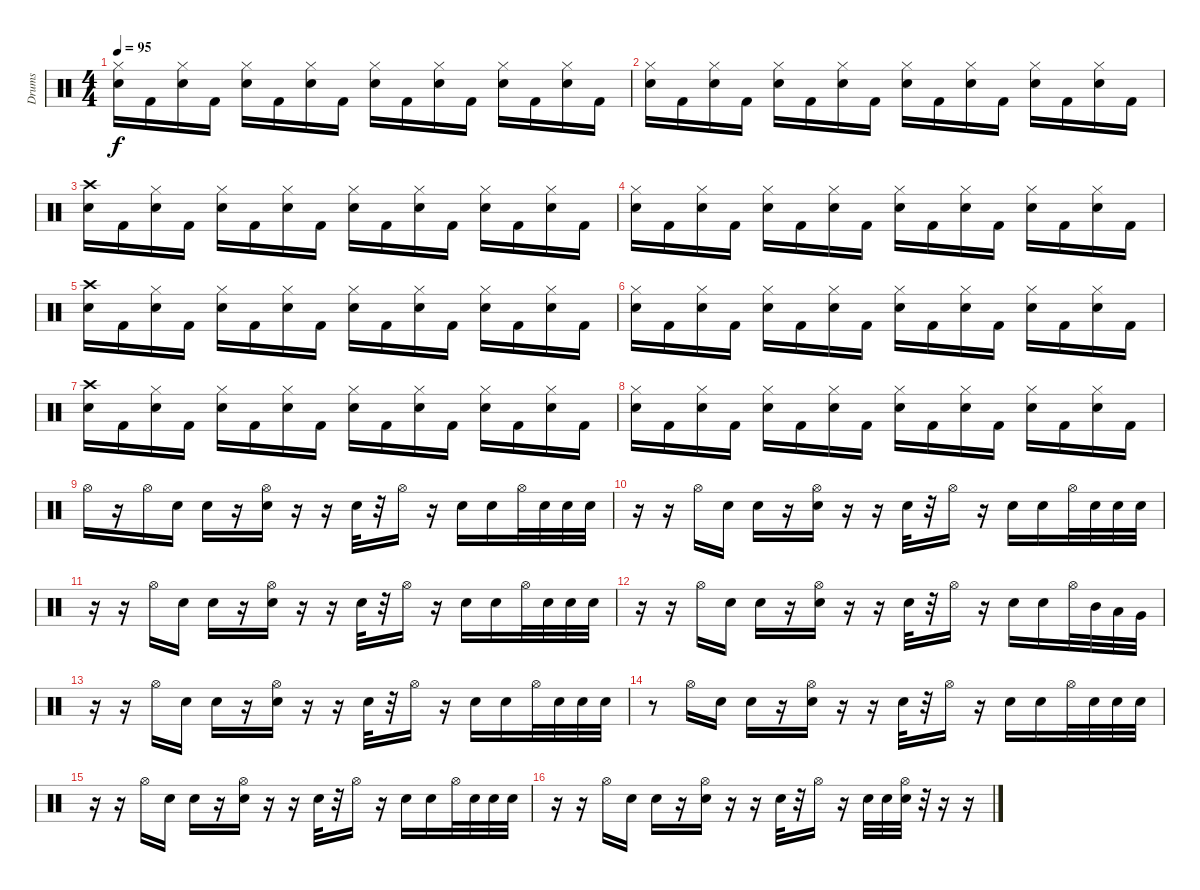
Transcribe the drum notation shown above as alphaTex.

\track ("Drums" "Drums") {instrument percussion}
\staff {score}
\articulation defaults
\ts (4 4)
\tempo 95
\clef neutral
\ks c
("Hi-Hat (closed)" "Electric Snare (hit)").16{dy f} "Kick (hit) 2".16 ("Hi-Hat (closed)" "Electric Snare (hit)").16 "Kick (hit) 2".16 ("Hi-Hat (closed)" "Electric Snare (hit)").16 "Kick (hit) 2".16 ("Hi-Hat (closed)" "Electric Snare (hit)").16 "Kick (hit) 2".16 ("Hi-Hat (closed)" "Electric Snare (hit)").16 "Kick (hit) 2".16 ("Hi-Hat (closed)" "Electric Snare (hit)").16 "Kick (hit) 2".16 ("Hi-Hat (closed)" "Electric Snare (hit)").16 "Kick (hit) 2".16 ("Hi-Hat (closed)" "Electric Snare (hit)").16 "Kick (hit) 2".16 |
("Hi-Hat (closed)" "Electric Snare (hit)").16 "Kick (hit) 2".16 ("Hi-Hat (closed)" "Electric Snare (hit)").16 "Kick (hit) 2".16 ("Hi-Hat (closed)" "Electric Snare (hit)").16 "Kick (hit) 2".16 ("Hi-Hat (closed)" "Electric Snare (hit)").16 "Kick (hit) 2".16 ("Hi-Hat (closed)" "Electric Snare (hit)").16 "Kick (hit) 2".16 ("Hi-Hat (closed)" "Electric Snare (hit)").16 "Kick (hit) 2".16 ("Hi-Hat (closed)" "Electric Snare (hit)").16 "Kick (hit) 2".16 ("Hi-Hat (closed)" "Electric Snare (hit)").16 "Kick (hit) 2".16 |
("Crash high (hit)" "Electric Snare (hit)").16 "Kick (hit) 2".16 ("Hi-Hat (closed)" "Electric Snare (hit)").16 "Kick (hit) 2".16 ("Hi-Hat (closed)" "Electric Snare (hit)").16 "Kick (hit) 2".16 ("Hi-Hat (closed)" "Electric Snare (hit)").16 "Kick (hit) 2".16 ("Hi-Hat (closed)" "Electric Snare (hit)").16 "Kick (hit) 2".16 ("Hi-Hat (closed)" "Electric Snare (hit)").16 "Kick (hit) 2".16 ("Hi-Hat (closed)" "Electric Snare (hit)").16 "Kick (hit) 2".16 ("Hi-Hat (closed)" "Electric Snare (hit)").16 "Kick (hit) 2".16 |
("Hi-Hat (closed)" "Electric Snare (hit)").16 "Kick (hit) 2".16 ("Hi-Hat (closed)" "Electric Snare (hit)").16 "Kick (hit) 2".16 ("Hi-Hat (closed)" "Electric Snare (hit)").16 "Kick (hit) 2".16 ("Hi-Hat (closed)" "Electric Snare (hit)").16 "Kick (hit) 2".16 ("Hi-Hat (closed)" "Electric Snare (hit)").16 "Kick (hit) 2".16 ("Hi-Hat (closed)" "Electric Snare (hit)").16 "Kick (hit) 2".16 ("Hi-Hat (closed)" "Electric Snare (hit)").16 "Kick (hit) 2".16 ("Hi-Hat (closed)" "Electric Snare (hit)").16 "Kick (hit) 2".16 |
("Crash high (hit)" "Electric Snare (hit)").16 "Kick (hit) 2".16 ("Hi-Hat (closed)" "Electric Snare (hit)").16 "Kick (hit) 2".16 ("Hi-Hat (closed)" "Electric Snare (hit)").16 "Kick (hit) 2".16 ("Hi-Hat (closed)" "Electric Snare (hit)").16 "Kick (hit) 2".16 ("Hi-Hat (closed)" "Electric Snare (hit)").16 "Kick (hit) 2".16 ("Hi-Hat (closed)" "Electric Snare (hit)").16 "Kick (hit) 2".16 ("Hi-Hat (closed)" "Electric Snare (hit)").16 "Kick (hit) 2".16 ("Hi-Hat (closed)" "Electric Snare (hit)").16 "Kick (hit) 2".16 |
("Hi-Hat (closed)" "Electric Snare (hit)").16 "Kick (hit) 2".16 ("Hi-Hat (closed)" "Electric Snare (hit)").16 "Kick (hit) 2".16 ("Hi-Hat (closed)" "Electric Snare (hit)").16 "Kick (hit) 2".16 ("Hi-Hat (closed)" "Electric Snare (hit)").16 "Kick (hit) 2".16 ("Hi-Hat (closed)" "Electric Snare (hit)").16 "Kick (hit) 2".16 ("Hi-Hat (closed)" "Electric Snare (hit)").16 "Kick (hit) 2".16 ("Hi-Hat (closed)" "Electric Snare (hit)").16 "Kick (hit) 2".16 ("Hi-Hat (closed)" "Electric Snare (hit)").16 "Kick (hit) 2".16 |
("Crash high (hit)" "Electric Snare (hit)").16 "Kick (hit) 2".16 ("Hi-Hat (closed)" "Electric Snare (hit)").16 "Kick (hit) 2".16 ("Hi-Hat (closed)" "Electric Snare (hit)").16 "Kick (hit) 2".16 ("Hi-Hat (closed)" "Electric Snare (hit)").16 "Kick (hit) 2".16 ("Hi-Hat (closed)" "Electric Snare (hit)").16 "Kick (hit) 2".16 ("Hi-Hat (closed)" "Electric Snare (hit)").16 "Kick (hit) 2".16 ("Hi-Hat (closed)" "Electric Snare (hit)").16 "Kick (hit) 2".16 ("Hi-Hat (closed)" "Electric Snare (hit)").16 "Kick (hit) 2".16 |
("Hi-Hat (closed)" "Electric Snare (hit)").16 "Kick (hit) 2".16 ("Hi-Hat (closed)" "Electric Snare (hit)").16 "Kick (hit) 2".16 ("Hi-Hat (closed)" "Electric Snare (hit)").16 "Kick (hit) 2".16 ("Hi-Hat (closed)" "Electric Snare (hit)").16 "Kick (hit) 2".16 ("Hi-Hat (closed)" "Electric Snare (hit)").16 "Kick (hit) 2".16 ("Hi-Hat (closed)" "Electric Snare (hit)").16 "Kick (hit) 2".16 ("Hi-Hat (closed)" "Electric Snare (hit)").16 "Kick (hit) 2".16 ("Hi-Hat (closed)" "Electric Snare (hit)").16 "Kick (hit) 2".16 |
"Hi-Hat (open)".16 r.16 "Hi-Hat (open)".16 "Electric Snare (hit)".16 "Electric Snare (hit)".16 r.16 ("Hi-Hat (open)" "Electric Snare (hit)").16 r.16 r.16 "Electric Snare (hit)".32 r.32 "Hi-Hat (open)".16 r.16 "Electric Snare (hit)".16 "Electric Snare (hit)".16 "Hi-Hat (open)".32 "Electric Snare (hit)".32 "Electric Snare (hit)".32 "Electric Snare (hit)".32 |
r.16 r.16 "Hi-Hat (open)".16 "Electric Snare (hit)".16 "Electric Snare (hit)".16 r.16 ("Hi-Hat (open)" "Electric Snare (hit)").16 r.16 r.16 "Electric Snare (hit)".32 r.32 "Hi-Hat (open)".16 r.16 "Electric Snare (hit)".16 "Electric Snare (hit)".16 "Hi-Hat (open)".32 "Electric Snare (hit)".32 "Electric Snare (hit)".32 "Electric Snare (hit)".32 |
r.16 r.16 "Hi-Hat (open)".16 "Electric Snare (hit)".16 "Electric Snare (hit)".16 r.16 ("Hi-Hat (open)" "Electric Snare (hit)").16 r.16 r.16 "Electric Snare (hit)".32 r.32 "Hi-Hat (open)".16 r.16 "Electric Snare (hit)".16 "Electric Snare (hit)".16 "Hi-Hat (open)".32 "Electric Snare (hit)".32 "Electric Snare (hit)".32 "Electric Snare (hit)".32 |
r.16 r.16 "Hi-Hat (open)".16 "Electric Snare (hit)".16 "Electric Snare (hit)".16 r.16 ("Hi-Hat (open)" "Electric Snare (hit)").16 r.16 r.16 "Electric Snare (hit)".32 r.32 "Hi-Hat (open)".16 r.16 "Electric Snare (hit)".16 "Electric Snare (hit)".16 "Hi-Hat (open)".32 "Mid Tom (hit)".32 "Low Tom (hit)".32 "Very Low Tom (hit)".32 |
r.16 r.16 "Hi-Hat (open)".16 "Electric Snare (hit)".16 "Electric Snare (hit)".16 r.16 ("Hi-Hat (open)" "Electric Snare (hit)").16 r.16 r.16 "Electric Snare (hit)".32 r.32 "Hi-Hat (open)".16 r.16 "Electric Snare (hit)".16 "Electric Snare (hit)".16 "Hi-Hat (open)".32 "Electric Snare (hit)".32 "Electric Snare (hit)".32 "Electric Snare (hit)".32 |
r.8 "Hi-Hat (open)".16 "Electric Snare (hit)".16 "Electric Snare (hit)".16 r.16 ("Hi-Hat (open)" "Electric Snare (hit)").16 r.16 r.16 "Electric Snare (hit)".32 r.32 "Hi-Hat (open)".16 r.16 "Electric Snare (hit)".16 "Electric Snare (hit)".16 "Hi-Hat (open)".32 "Electric Snare (hit)".32 "Electric Snare (hit)".32 "Electric Snare (hit)".32 |
r.16 r.16 "Hi-Hat (open)".16 "Electric Snare (hit)".16 "Electric Snare (hit)".16 r.16 ("Hi-Hat (open)" "Electric Snare (hit)").16 r.16 r.16 "Electric Snare (hit)".32 r.32 "Hi-Hat (open)".16 r.16 "Electric Snare (hit)".16 "Electric Snare (hit)".16 "Hi-Hat (open)".32 "Electric Snare (hit)".32 "Electric Snare (hit)".32 "Electric Snare (hit)".32 |
r.16 r.16 "Hi-Hat (open)".16 "Electric Snare (hit)".16 "Electric Snare (hit)".16 r.16 ("Hi-Hat (open)" "Electric Snare (hit)").16 r.16 r.16 "Electric Snare (hit)".32 r.32 "Hi-Hat (open)".16 r.16 "Electric Snare (hit)".32 "Electric Snare (hit)".32 ("Hi-Hat (open)" "Electric Snare (hit)").32 r.32 r.16 r.16
